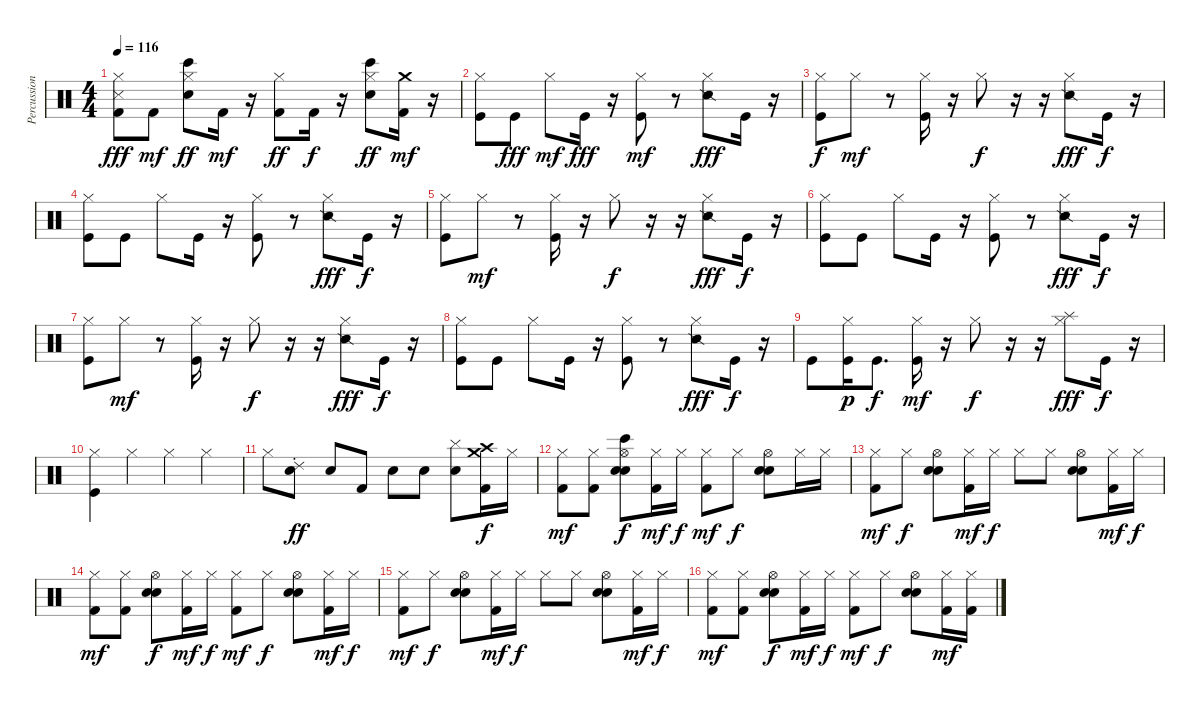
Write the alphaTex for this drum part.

\track ("Percussion" "Percussion") {instrument percussion}
\staff {score}
\articulation defaults
\ts (4 4)
\tempo 116
\clef neutral
\ks c
("Hi-Hat (closed)" "Kick (hit) 2" "Snare (side stick) 3").8{dy fff} "Kick (hit) 2".8{dy mf} ("Hi-Hat (closed)" "Electric Snare (hit)" "Bongo High (hit)").8{dy ff} "Kick (hit) 2".16{dy mf} r.16 ("Hi-Hat (closed)" "Kick (hit) 2").8{dy ff} "Kick (hit) 2".16{dy f} r.16 ("Hi-Hat (closed)" "Electric Snare (hit)" "Bongo High (hit)").8{dy ff} ("Kick (hit) 2" "Crash medium (hit)").16{dy mf} r.16 |
("Hi-Hat (closed)" "Kick (hit)").8 "Kick (hit)".8{dy fff} "Hi-Hat (closed)".8{dy mf} "Kick (hit)".16{dy fff} r.16 ("Hi-Hat (closed)" "Kick (hit)").8{dy mf} r.8 ("Hi-Hat (closed)" "Snare (side stick) 2").8{dy fff} "Kick (hit)".16 r.16 |
("Hi-Hat (closed)" "Kick (hit)").8{dy f} "Hi-Hat (closed)".8{dy mf} r.8 ("Hi-Hat (closed)" "Kick (hit)").16 r.16 "Hi-Hat (closed)".8{dy f} r.16 r.16 ("Hi-Hat (closed)" "Snare (side stick) 2").8{dy fff} "Kick (hit)".16{dy f} r.16 |
("Hi-Hat (closed)" "Kick (hit)").8 "Kick (hit)".8 "Hi-Hat (closed)".8 "Kick (hit)".16 r.16 ("Hi-Hat (closed)" "Kick (hit)").8 r.8 ("Hi-Hat (closed)" "Snare (side stick) 2").8{dy fff} "Kick (hit)".16{dy f} r.16 |
("Hi-Hat (closed)" "Kick (hit)").8 "Hi-Hat (closed)".8{dy mf} r.8 ("Hi-Hat (closed)" "Kick (hit)").16 r.16 "Hi-Hat (closed)".8{dy f} r.16 r.16 ("Hi-Hat (closed)" "Snare (side stick) 2").8{dy fff} "Kick (hit)".16{dy f} r.16 |
("Hi-Hat (closed)" "Kick (hit)").8 "Kick (hit)".8 "Hi-Hat (closed)".8 "Kick (hit)".16 r.16 ("Hi-Hat (closed)" "Kick (hit)").8 r.8 ("Hi-Hat (closed)" "Snare (side stick) 2").8{dy fff} "Kick (hit)".16{dy f} r.16 |
("Hi-Hat (closed)" "Kick (hit)").8 "Hi-Hat (closed)".8{dy mf} r.8 ("Hi-Hat (closed)" "Kick (hit)").16 r.16 "Hi-Hat (closed)".8{dy f} r.16 r.16 ("Hi-Hat (closed)" "Snare (side stick) 2").8{dy fff} "Kick (hit)".16{dy f} r.16 |
("Hi-Hat (closed)" "Kick (hit)").8 "Kick (hit)".8 "Hi-Hat (closed)".8 "Kick (hit)".16 r.16 ("Hi-Hat (closed)" "Kick (hit)").8 r.8 ("Hi-Hat (closed)" "Snare (side stick) 2").8{dy fff} "Kick (hit)".16{dy f} r.16 |
"Kick (hit)".8 ("Hi-Hat (closed)" "Kick (hit)").16{dy p} "Kick (hit)".8{d dy f} ("Hi-Hat (closed)" "Kick (hit)").16{dy mf} r.16 "Hi-Hat (closed)".8{dy f} r.16 r.16 ("Hi-Hat (closed)" "Splash (hit)").8{dy fff} "Kick (hit)".16{dy f} r.16 |
("Hi-Hat (closed)" "Kick (hit)").4 "Hi-Hat (closed)".4 "Hi-Hat (closed)".4 "Hi-Hat (closed)".4 |
"Hi-Hat (closed)".8 ("Electric Snare (hit)" "Ride (choke) 2").8{dy ff} "Electric Snare (hit)".8 "Kick (hit) 2".8 "Electric Snare (hit)".8 "Electric Snare (hit)".8 ("Electric Snare (hit)" "Cymbal (hit)").8 ("Crash high (hit)" "Crash medium (hit)" "Kick (hit) 2").16{dy f} "Hi-Hat (closed)".16 |
("Hi-Hat (closed)" "Kick (hit) 2").8{dy mf} ("Hi-Hat (closed)" "Kick (hit) 2").8 ("Hi-Hat (open)" "Electric Snare (hit)" "Hand Clap (hit)" "Bongo High (hit)").8{dy f} ("Hi-Hat (closed)" "Kick (hit) 2").16{dy mf} "Hi-Hat (closed)".16{dy f} ("Hi-Hat (closed)" "Kick (hit) 2").8{dy mf} "Hi-Hat (closed)".8{dy f} ("Hi-Hat (open)" "Electric Snare (hit)" "Hand Clap (hit)").8 "Hi-Hat (closed)".16 "Hi-Hat (closed)".16 |
("Hi-Hat (closed)" "Kick (hit) 2").8{dy mf} "Hi-Hat (closed)".8{dy f} ("Hi-Hat (open)" "Electric Snare (hit)" "Hand Clap (hit)").8 ("Hi-Hat (closed)" "Kick (hit) 2").16{dy mf} "Hi-Hat (closed)".16{dy f} "Hi-Hat (closed)".8 "Hi-Hat (closed)".8 ("Hi-Hat (open)" "Electric Snare (hit)" "Hand Clap (hit)").8 ("Hi-Hat (closed)" "Kick (hit) 2").16{dy mf} "Hi-Hat (closed)".16{dy f} |
("Hi-Hat (closed)" "Kick (hit) 2").8{dy mf} ("Hi-Hat (closed)" "Kick (hit) 2").8 ("Hi-Hat (open)" "Electric Snare (hit)" "Hand Clap (hit)").8{dy f} ("Hi-Hat (closed)" "Kick (hit) 2").16{dy mf} "Hi-Hat (closed)".16{dy f} ("Hi-Hat (closed)" "Kick (hit) 2").8{dy mf} "Hi-Hat (closed)".8{dy f} ("Hi-Hat (open)" "Electric Snare (hit)" "Hand Clap (hit)").8 ("Hi-Hat (closed)" "Kick (hit) 2").16{dy mf} "Hi-Hat (closed)".16{dy f} |
("Hi-Hat (closed)" "Kick (hit) 2").8{dy mf} "Hi-Hat (closed)".8{dy f} ("Hi-Hat (open)" "Electric Snare (hit)" "Hand Clap (hit)").8 ("Hi-Hat (closed)" "Kick (hit) 2").16{dy mf} "Hi-Hat (closed)".16{dy f} "Hi-Hat (closed)".8 "Hi-Hat (closed)".8 ("Hi-Hat (open)" "Electric Snare (hit)" "Hand Clap (hit)").8 ("Hi-Hat (closed)" "Kick (hit) 2").16{dy mf} "Hi-Hat (closed)".16{dy f} |
("Hi-Hat (closed)" "Kick (hit) 2").8{dy mf} ("Hi-Hat (closed)" "Kick (hit) 2").8 ("Hi-Hat (open)" "Electric Snare (hit)" "Hand Clap (hit)").8{dy f} ("Hi-Hat (closed)" "Kick (hit) 2").16{dy mf} "Hi-Hat (closed)".16{dy f} ("Hi-Hat (closed)" "Kick (hit) 2").8{dy mf} "Hi-Hat (closed)".8{dy f} ("Hi-Hat (open)" "Electric Snare (hit)" "Hand Clap (hit)").8 ("Hi-Hat (closed)" "Kick (hit) 2").16{dy mf} ("Hi-Hat (closed)" "Kick (hit) 2").16
